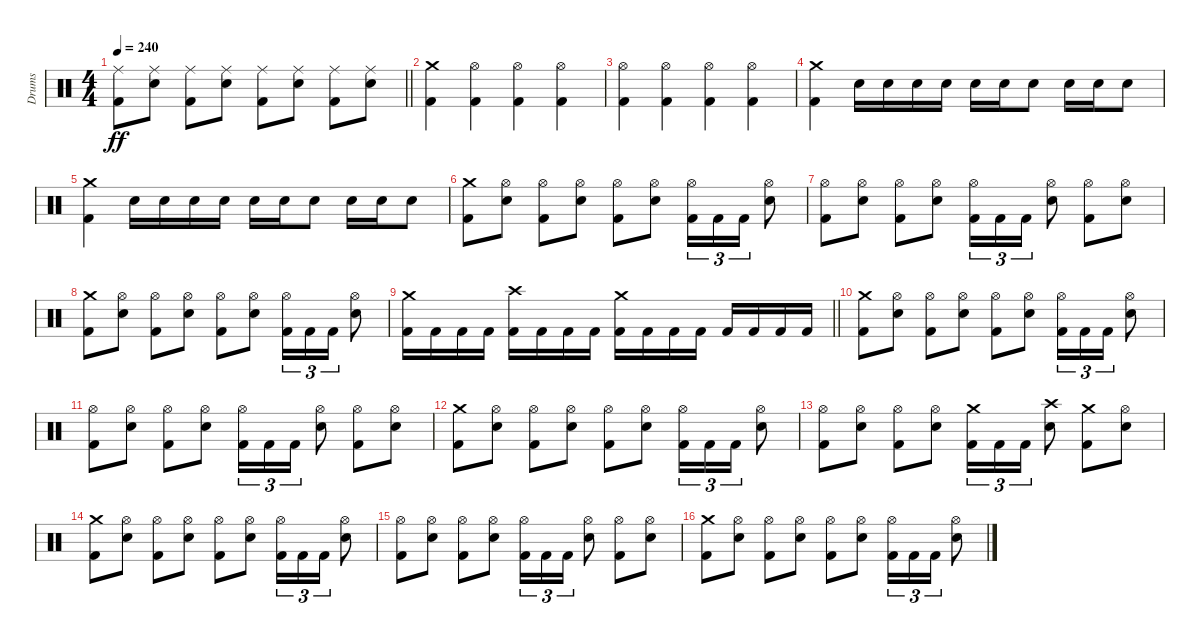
\track ("Drums" "Drums") {instrument percussion}
\staff {score}
\articulation defaults
\ts (4 4)
\tempo 240
\clef neutral
\barLineRight lightlight
\ks c
("Ride (middle)" "Kick (hit) 2").8{dy ff} ("Ride (middle)" "Snare (hit) 2").8 ("Ride (middle)" "Kick (hit) 2").8 ("Ride (middle)" "Snare (hit) 2").8 ("Ride (middle)" "Kick (hit) 2").8 ("Ride (middle)" "Snare (hit) 2").8 ("Ride (middle)" "Kick (hit) 2").8 ("Ride (middle)" "Snare (hit) 2").8 |
("Crash medium (hit)" "Kick (hit) 2").4 ("Hi-Hat (open)" "Kick (hit) 2").4 ("Hi-Hat (open)" "Kick (hit) 2").4 ("Hi-Hat (open)" "Kick (hit) 2").4 |
("Hi-Hat (open)" "Kick (hit) 2").4 ("Hi-Hat (open)" "Kick (hit) 2").4 ("Hi-Hat (open)" "Kick (hit) 2").4 ("Hi-Hat (open)" "Kick (hit) 2").4 |
("Crash medium (hit)" "Kick (hit) 2").4 "Snare (hit) 2".16 "Snare (hit) 2".16 "Snare (hit) 2".16 "Snare (hit) 2".16 "Snare (hit) 2".16 "Snare (hit) 2".16 "Snare (hit) 2".8 "Snare (hit) 2".16 "Snare (hit) 2".16 "Snare (hit) 2".8 |
("Crash medium (hit)" "Kick (hit) 2").4 "Snare (hit) 2".16 "Snare (hit) 2".16 "Snare (hit) 2".16 "Snare (hit) 2".16 "Snare (hit) 2".16 "Snare (hit) 2".16 "Snare (hit) 2".8 "Snare (hit) 2".16 "Snare (hit) 2".16 "Snare (hit) 2".8 |
("Crash medium (hit)" "Kick (hit) 2").8 ("Hi-Hat (open)" "Snare (hit) 2").8 ("Hi-Hat (open)" "Kick (hit) 2").8 ("Hi-Hat (open)" "Snare (hit) 2").8 ("Hi-Hat (open)" "Kick (hit) 2").8 ("Hi-Hat (open)" "Snare (hit) 2").8 ("Hi-Hat (open)" "Kick (hit) 2").16{tu (3 2)} "Kick (hit) 2".16{tu (3 2)} "Kick (hit) 2".16{tu (3 2)} ("Hi-Hat (open)" "Snare (hit) 2").8 |
("Hi-Hat (open)" "Kick (hit) 2").8 ("Hi-Hat (open)" "Snare (hit) 2").8 ("Hi-Hat (open)" "Kick (hit) 2").8 ("Hi-Hat (open)" "Snare (hit) 2").8 ("Hi-Hat (open)" "Kick (hit) 2").16{tu (3 2)} "Kick (hit) 2".16{tu (3 2)} "Kick (hit) 2".16{tu (3 2)} ("Hi-Hat (open)" "Snare (hit) 2").8 ("Hi-Hat (open)" "Kick (hit) 2").8 ("Hi-Hat (open)" "Snare (hit) 2").8 |
("Crash medium (hit)" "Kick (hit) 2").8 ("Hi-Hat (open)" "Snare (hit) 2").8 ("Hi-Hat (open)" "Kick (hit) 2").8 ("Hi-Hat (open)" "Snare (hit) 2").8 ("Hi-Hat (open)" "Kick (hit) 2").8 ("Hi-Hat (open)" "Snare (hit) 2").8 ("Hi-Hat (open)" "Kick (hit) 2").16{tu (3 2)} "Kick (hit) 2".16{tu (3 2)} "Kick (hit) 2".16{tu (3 2)} ("Hi-Hat (open)" "Snare (hit) 2").8 |
\barLineRight lightlight
("Crash medium (hit)" "Kick (hit) 2").16 "Kick (hit) 2".16 "Kick (hit) 2".16 "Kick (hit) 2".16 ("Crash high (hit)" "Kick (hit) 2").16 "Kick (hit) 2".16 "Kick (hit) 2".16 "Kick (hit) 2".16 ("Crash medium (hit)" "Kick (hit) 2").16 "Kick (hit) 2".16 "Kick (hit) 2".16 "Kick (hit) 2".16 "Kick (hit) 2".16 "Kick (hit) 2".16 "Kick (hit) 2".16 "Kick (hit) 2".16 |
("Crash medium (hit)" "Kick (hit) 2").8 ("Hi-Hat (open)" "Snare (hit) 2").8 ("Hi-Hat (open)" "Kick (hit) 2").8 ("Hi-Hat (open)" "Snare (hit) 2").8 ("Hi-Hat (open)" "Kick (hit) 2").8 ("Hi-Hat (open)" "Snare (hit) 2").8 ("Hi-Hat (open)" "Kick (hit) 2").16{tu (3 2)} "Kick (hit) 2".16{tu (3 2)} "Kick (hit) 2".16{tu (3 2)} ("Hi-Hat (open)" "Snare (hit) 2").8 |
("Hi-Hat (open)" "Kick (hit) 2").8 ("Hi-Hat (open)" "Snare (hit) 2").8 ("Hi-Hat (open)" "Kick (hit) 2").8 ("Hi-Hat (open)" "Snare (hit) 2").8 ("Hi-Hat (open)" "Kick (hit) 2").16{tu (3 2)} "Kick (hit) 2".16{tu (3 2)} "Kick (hit) 2".16{tu (3 2)} ("Hi-Hat (open)" "Snare (hit) 2").8 ("Hi-Hat (open)" "Kick (hit) 2").8 ("Hi-Hat (open)" "Snare (hit) 2").8 |
("Crash medium (hit)" "Kick (hit) 2").8 ("Hi-Hat (open)" "Snare (hit) 2").8 ("Hi-Hat (open)" "Kick (hit) 2").8 ("Hi-Hat (open)" "Snare (hit) 2").8 ("Hi-Hat (open)" "Kick (hit) 2").8 ("Hi-Hat (open)" "Snare (hit) 2").8 ("Hi-Hat (open)" "Kick (hit) 2").16{tu (3 2)} "Kick (hit) 2".16{tu (3 2)} "Kick (hit) 2".16{tu (3 2)} ("Hi-Hat (open)" "Snare (hit) 2").8 |
("Hi-Hat (open)" "Kick (hit) 2").8 ("Hi-Hat (open)" "Snare (hit) 2").8 ("Hi-Hat (open)" "Kick (hit) 2").8 ("Hi-Hat (open)" "Snare (hit) 2").8 ("Crash medium (hit)" "Kick (hit) 2").16{tu (3 2)} "Kick (hit) 2".16{tu (3 2)} "Kick (hit) 2".16{tu (3 2)} ("Crash high (hit)" "Snare (hit) 2").8 ("Crash medium (hit)" "Kick (hit) 2").8 ("Hi-Hat (open)" "Snare (hit) 2").8 |
("Crash medium (hit)" "Kick (hit) 2").8 ("Hi-Hat (open)" "Snare (hit) 2").8 ("Hi-Hat (open)" "Kick (hit) 2").8 ("Hi-Hat (open)" "Snare (hit) 2").8 ("Hi-Hat (open)" "Kick (hit) 2").8 ("Hi-Hat (open)" "Snare (hit) 2").8 ("Hi-Hat (open)" "Kick (hit) 2").16{tu (3 2)} "Kick (hit) 2".16{tu (3 2)} "Kick (hit) 2".16{tu (3 2)} ("Hi-Hat (open)" "Snare (hit) 2").8 |
("Hi-Hat (open)" "Kick (hit) 2").8 ("Hi-Hat (open)" "Snare (hit) 2").8 ("Hi-Hat (open)" "Kick (hit) 2").8 ("Hi-Hat (open)" "Snare (hit) 2").8 ("Hi-Hat (open)" "Kick (hit) 2").16{tu (3 2)} "Kick (hit) 2".16{tu (3 2)} "Kick (hit) 2".16{tu (3 2)} ("Hi-Hat (open)" "Snare (hit) 2").8 ("Hi-Hat (open)" "Kick (hit) 2").8 ("Hi-Hat (open)" "Snare (hit) 2").8 |
("Crash medium (hit)" "Kick (hit) 2").8 ("Hi-Hat (open)" "Snare (hit) 2").8 ("Hi-Hat (open)" "Kick (hit) 2").8 ("Hi-Hat (open)" "Snare (hit) 2").8 ("Hi-Hat (open)" "Kick (hit) 2").8 ("Hi-Hat (open)" "Snare (hit) 2").8 ("Hi-Hat (open)" "Kick (hit) 2").16{tu (3 2)} "Kick (hit) 2".16{tu (3 2)} "Kick (hit) 2".16{tu (3 2)} ("Hi-Hat (open)" "Snare (hit) 2").8
